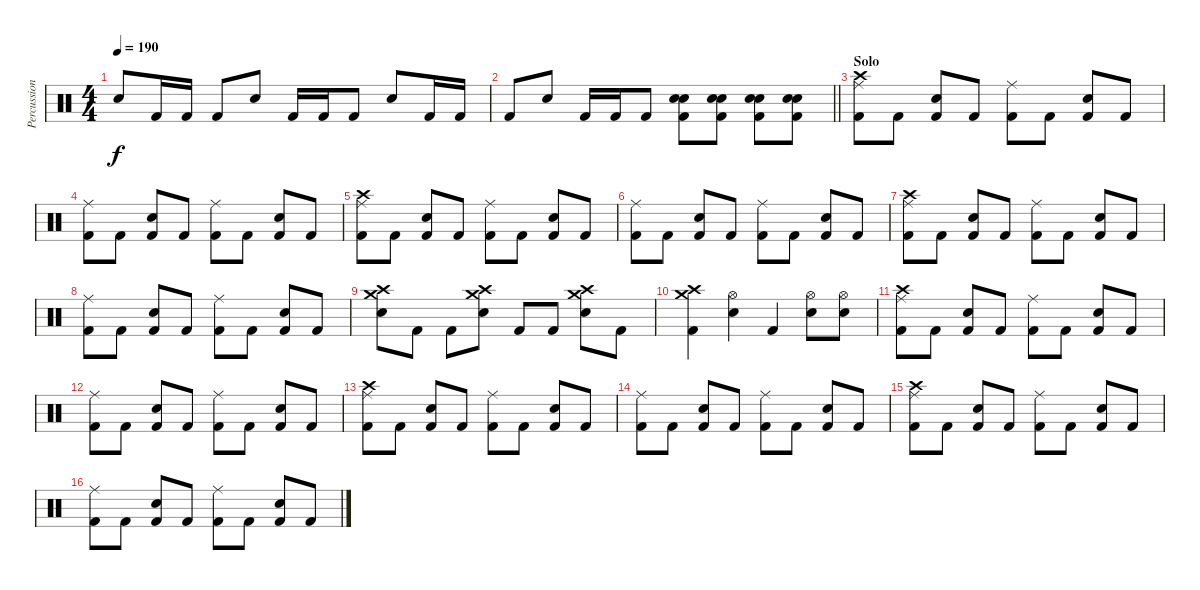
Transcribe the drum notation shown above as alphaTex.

\track ("Percussion" "Percussion") {instrument percussion}
\staff {score}
\articulation defaults
\ts (4 4)
\tempo 190
\clef neutral
\ks c "Snare (hit) 2".8{dy f} "Kick (hit) 2".16 "Kick (hit) 2".16 "Kick (hit) 2".8 "Snare (hit) 2".8 "Kick (hit) 2".16 "Kick (hit) 2".16 "Kick (hit) 2".8 "Snare (hit) 2".8 "Kick (hit) 2".16 "Kick (hit) 2".16
|
\barLineRight lightlight "Kick (hit) 2".8 "Snare (hit) 2".8 "Kick (hit) 2".16 "Kick (hit) 2".16 "Kick (hit) 2".8
("Electric Snare (hit)" "Snare (hit) 2" "Kick (hit) 2").8 ("Electric Snare (hit)" "Snare (hit) 2" "Kick (hit) 2").8 ("Electric Snare (hit)" "Snare (hit) 2" "Kick (hit) 2").8 ("Electric Snare (hit)" "Snare (hit) 2" "Kick (hit) 2").8 |
\section ("" "Solo")
("Ride (middle)" "Kick (hit) 2" "Crash high (hit)").8 "Kick (hit) 2".8 ("Snare (hit) 2" "Kick (hit) 2").8 "Kick (hit) 2".8 ("Ride (middle)" "Kick (hit) 2").8 "Kick (hit) 2".8 ("Snare (hit) 2" "Kick (hit) 2").8 "Kick (hit) 2".8 |
("Ride (middle)" "Kick (hit) 2").8 "Kick (hit) 2".8 ("Snare (hit) 2" "Kick (hit) 2").8 "Kick (hit) 2".8 ("Ride (middle)" "Kick (hit) 2").8 "Kick (hit) 2".8 ("Snare (hit) 2" "Kick (hit) 2").8 "Kick (hit) 2".8 |
("Ride (middle)" "Kick (hit) 2" "Crash high (hit)").8 "Kick (hit) 2".8 ("Snare (hit) 2" "Kick (hit) 2").8 "Kick (hit) 2".8 ("Ride (middle)" "Kick (hit) 2").8 "Kick (hit) 2".8 ("Snare (hit) 2" "Kick (hit) 2").8 "Kick (hit) 2".8 |
("Ride (middle)" "Kick (hit) 2").8 "Kick (hit) 2".8 ("Snare (hit) 2" "Kick (hit) 2").8 "Kick (hit) 2".8 ("Ride (middle)" "Kick (hit) 2").8 "Kick (hit) 2".8 ("Snare (hit) 2" "Kick (hit) 2").8 "Kick (hit) 2".8 |
("Ride (middle)" "Kick (hit) 2" "Crash high (hit)").8 "Kick (hit) 2".8 ("Snare (hit) 2" "Kick (hit) 2").8 "Kick (hit) 2".8 ("Ride (middle)" "Kick (hit) 2").8 "Kick (hit) 2".8 ("Snare (hit) 2" "Kick (hit) 2").8 "Kick (hit) 2".8 |
("Ride (middle)" "Kick (hit) 2").8 "Kick (hit) 2".8 ("Snare (hit) 2" "Kick (hit) 2").8 "Kick (hit) 2".8 ("Ride (middle)" "Kick (hit) 2").8 "Kick (hit) 2".8 ("Snare (hit) 2" "Kick (hit) 2").8 "Kick (hit) 2".8 |
("Snare (hit) 2" "Crash medium (hit)" "Crash high (hit)").8 "Kick (hit) 2".8 "Kick (hit) 2".8 ("Snare (hit) 2" "Crash medium (hit)" "Crash high (hit)").8 "Kick (hit) 2".8 "Kick (hit) 2".8 ("Snare (hit) 2" "Crash medium (hit)" "Crash high (hit)").8 "Kick (hit) 2".8 |
("Kick (hit) 2" "Crash medium (hit)" "Crash high (hit)").4 ("Hi-Hat (open)" "Snare (hit) 2").4 "Kick (hit) 2".4 ("Hi-Hat (open)" "Snare (hit) 2").8 ("Hi-Hat (open)" "Snare (hit) 2").8 |
("Ride (middle)" "Kick (hit) 2" "Crash high (hit)").8 "Kick (hit) 2".8 ("Snare (hit) 2" "Kick (hit) 2").8 "Kick (hit) 2".8 ("Ride (middle)" "Kick (hit) 2").8 "Kick (hit) 2".8 ("Snare (hit) 2" "Kick (hit) 2").8 "Kick (hit) 2".8 |
("Ride (middle)" "Kick (hit) 2").8 "Kick (hit) 2".8 ("Snare (hit) 2" "Kick (hit) 2").8 "Kick (hit) 2".8 ("Ride (middle)" "Kick (hit) 2").8 "Kick (hit) 2".8 ("Snare (hit) 2" "Kick (hit) 2").8 "Kick (hit) 2".8 |
("Ride (middle)" "Kick (hit) 2" "Crash high (hit)").8 "Kick (hit) 2".8 ("Snare (hit) 2" "Kick (hit) 2").8 "Kick (hit) 2".8 ("Ride (middle)" "Kick (hit) 2").8 "Kick (hit) 2".8 ("Snare (hit) 2" "Kick (hit) 2").8 "Kick (hit) 2".8 |
("Ride (middle)" "Kick (hit) 2").8 "Kick (hit) 2".8 ("Snare (hit) 2" "Kick (hit) 2").8 "Kick (hit) 2".8 ("Ride (middle)" "Kick (hit) 2").8 "Kick (hit) 2".8 ("Snare (hit) 2" "Kick (hit) 2").8 "Kick (hit) 2".8 |
("Ride (middle)" "Kick (hit) 2" "Crash high (hit)").8 "Kick (hit) 2".8 ("Snare (hit) 2" "Kick (hit) 2").8 "Kick (hit) 2".8 ("Ride (middle)" "Kick (hit) 2").8 "Kick (hit) 2".8 ("Snare (hit) 2" "Kick (hit) 2").8 "Kick (hit) 2".8 |
("Ride (middle)" "Kick (hit) 2").8 "Kick (hit) 2".8 ("Snare (hit) 2" "Kick (hit) 2").8 "Kick (hit) 2".8 ("Ride (middle)" "Kick (hit) 2").8 "Kick (hit) 2".8 ("Snare (hit) 2" "Kick (hit) 2").8 "Kick (hit) 2".8
